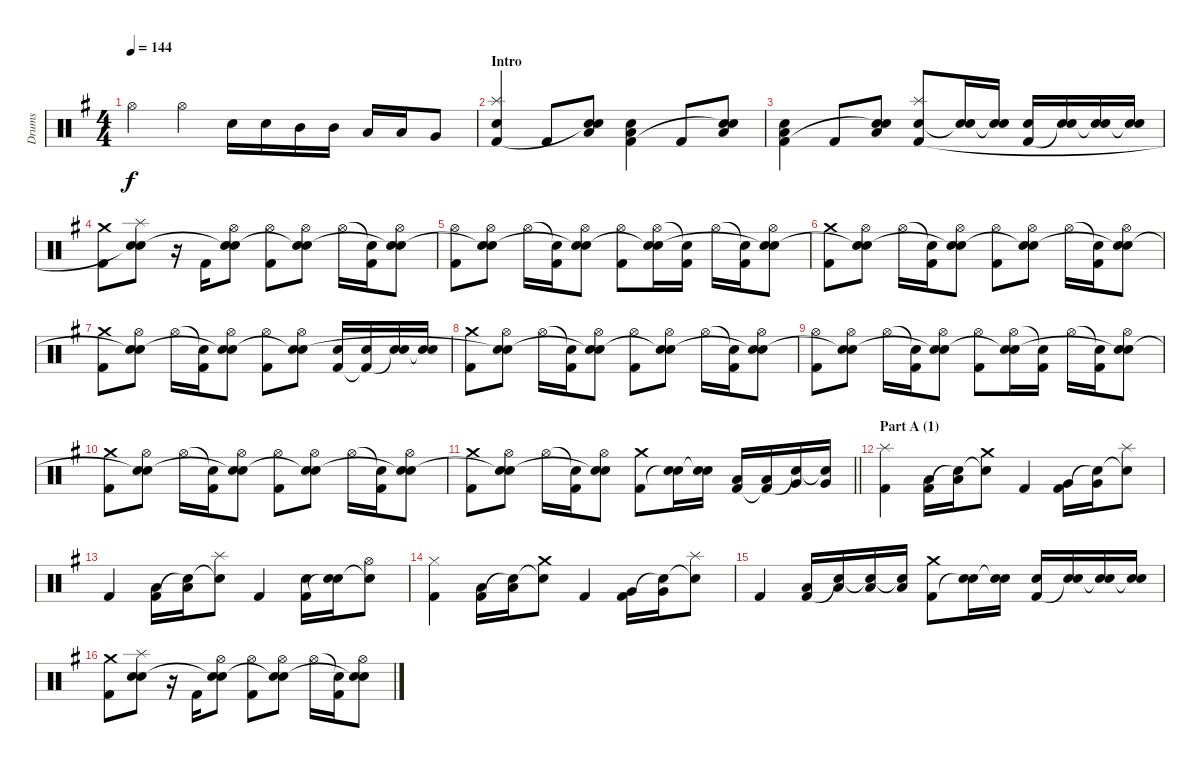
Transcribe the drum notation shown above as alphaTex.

\track ("Drums" "Drums") {instrument percussion}
\staff {score}
\articulation defaults
\ts (4 4)
\tempo 144
\clef neutral
\ks g "Hi-Hat (open)".4{dy f} "Hi-Hat (open)".4 "Electric Snare (hit)".16 "Electric Snare (hit)".16 "Mid Tom (hit)".16 "Mid Tom (hit)".16 "Low Tom (hit)".16 "Low Tom (hit)".16 "Very Low Tom (hit)".8
|
\section ("" "Intro")
("Splash (hit)" "Electric Snare (hit)" "Kick (hit) 2").4 "Kick (hit) 2".8 ("Electric Snare (hit)" "Low Floor Tom (hit)" "Snare (hit)"{t}).8 ("Electric Snare (hit)" "Low Floor Tom (hit)" "Kick (hit) 2").4 "Kick (hit) 2".8 ("Electric Snare (hit)" "Low Floor Tom (hit)" "Snare (hit)"{t}).8 |
("Electric Snare (hit)" "Low Floor Tom (hit)" "Kick (hit) 2").4 "Kick (hit) 2".8 ("Electric Snare (hit)" "Low Floor Tom (hit)" "Snare (hit)"{t}).8 ("Splash (hit)" "Electric Snare (hit)" "Kick (hit) 2").8 ("Electric Snare (hit)" "Snare (hit)"{t}).16 ("Electric Snare (hit)" "Snare (hit)"{t}).16 ("Electric Snare (hit)" "Kick (hit) 2").16 ("Electric Snare (hit)" "Snare (hit)"{t}).16 ("Electric Snare (hit)" "Snare (hit)"{t}).16 ("Electric Snare (hit)" "Snare (hit)"{t}).16 |
("Crash medium (hit)" "Kick (hit) 2").8 ("Splash (hit)" "Electric Snare (hit)" "Snare (hit)"{t}).8 r.16 "Kick (hit) 2".16 ("Hi-Hat (open)" "Electric Snare (hit)" "Snare (hit)"{t}).8 ("Hi-Hat (open)" "Kick (hit) 2").8 ("Hi-Hat (open)" "Electric Snare (hit)" "Snare (hit)"{t}).8 "Hi-Hat (open)".16 ("Snare (hit)"{t} "Kick (hit) 2").16 ("Hi-Hat (open)" "Electric Snare (hit)" "Snare (hit)"{t}).8 |
("Hi-Hat (open)" "Kick (hit) 2").8 ("Hi-Hat (open)" "Electric Snare (hit)" "Snare (hit)"{t}).8 "Hi-Hat (open)".16 ("Snare (hit)"{t} "Kick (hit) 2").16 ("Hi-Hat (open)" "Electric Snare (hit)" "Snare (hit)"{t}).8 ("Hi-Hat (open)" "Kick (hit) 2").8 ("Hi-Hat (open)" "Electric Snare (hit)" "Snare (hit)"{t}).16 ("Snare (hit)"{t} "Kick (hit) 2").16 "Hi-Hat (open)".16 ("Snare (hit)"{t} "Kick (hit) 2").16 ("Hi-Hat (open)" "Electric Snare (hit)" "Snare (hit)"{t}).8 |
("Crash medium (hit)" "Kick (hit) 2").8 ("Hi-Hat (open)" "Electric Snare (hit)" "Snare (hit)"{t}).8 "Hi-Hat (open)".16 ("Snare (hit)"{t} "Kick (hit) 2").16 ("Hi-Hat (open)" "Electric Snare (hit)" "Snare (hit)"{t}).8 ("Hi-Hat (open)" "Kick (hit) 2").8 ("Hi-Hat (open)" "Electric Snare (hit)" "Snare (hit)"{t}).8 "Hi-Hat (open)".16 ("Snare (hit)"{t} "Kick (hit) 2").16 ("Hi-Hat (open)" "Electric Snare (hit)" "Snare (hit)"{t}).8 |
("Crash medium (hit)" "Kick (hit) 2").8 ("Hi-Hat (open)" "Electric Snare (hit)" "Snare (hit)"{t}).8 "Hi-Hat (open)".16 ("Snare (hit)"{t} "Kick (hit) 2").16 ("Hi-Hat (open)" "Electric Snare (hit)" "Snare (hit)"{t}).8 ("Hi-Hat (open)" "Kick (hit) 2").8 ("Hi-Hat (open)" "Electric Snare (hit)" "Snare (hit)"{t}).8 ("Electric Snare (hit)" "Kick (hit) 2").16 ("Electric Snare (hit)" "Kick (hit) 2"{t}).16 ("Electric Snare (hit)" "Snare (hit)"{t}).16 ("Electric Snare (hit)" "Snare (hit)"{t}).16 |
("Crash medium (hit)" "Kick (hit) 2").8 ("Hi-Hat (open)" "Electric Snare (hit)" "Snare (hit)"{t}).8 "Hi-Hat (open)".16 ("Snare (hit)"{t} "Kick (hit) 2").16 ("Hi-Hat (open)" "Electric Snare (hit)" "Snare (hit)"{t}).8 ("Hi-Hat (open)" "Kick (hit) 2").8 ("Hi-Hat (open)" "Electric Snare (hit)" "Snare (hit)"{t}).8 "Hi-Hat (open)".16 ("Snare (hit)"{t} "Kick (hit) 2").16 ("Hi-Hat (open)" "Electric Snare (hit)" "Snare (hit)"{t}).8 |
("Hi-Hat (open)" "Kick (hit) 2").8 ("Hi-Hat (open)" "Electric Snare (hit)" "Snare (hit)"{t}).8 "Hi-Hat (open)".16 ("Snare (hit)"{t} "Kick (hit) 2").16 ("Hi-Hat (open)" "Electric Snare (hit)" "Snare (hit)"{t}).8 ("Hi-Hat (open)" "Kick (hit) 2").8 ("Hi-Hat (open)" "Electric Snare (hit)" "Snare (hit)"{t}).16 ("Snare (hit)"{t} "Kick (hit) 2").16 "Hi-Hat (open)".16 ("Snare (hit)"{t} "Kick (hit) 2").16 ("Hi-Hat (open)" "Electric Snare (hit)" "Snare (hit)"{t}).8 |
("Crash medium (hit)" "Kick (hit) 2").8 ("Hi-Hat (open)" "Electric Snare (hit)" "Snare (hit)"{t}).8 "Hi-Hat (open)".16 ("Snare (hit)"{t} "Kick (hit) 2").16 ("Hi-Hat (open)" "Electric Snare (hit)" "Snare (hit)"{t}).8 ("Hi-Hat (open)" "Kick (hit) 2").8 ("Hi-Hat (open)" "Electric Snare (hit)" "Snare (hit)"{t}).8 "Hi-Hat (open)".16 ("Snare (hit)"{t} "Kick (hit) 2").16 ("Hi-Hat (open)" "Electric Snare (hit)" "Snare (hit)"{t}).8 |
\barLineRight lightlight
("Crash medium (hit)" "Kick (hit) 2").8 ("Hi-Hat (open)" "Electric Snare (hit)" "Snare (hit)"{t}).8 "Hi-Hat (open)".16 ("Snare (hit)"{t} "Kick (hit) 2").16 ("Hi-Hat (open)" "Electric Snare (hit)" "Snare (hit)"{t}).8 ("Crash medium (hit)" "Kick (hit) 2").8 ("Electric Snare (hit)" "Snare (hit)"{t}).16 ("Electric Snare (hit)" "Snare (hit)"{t}).16 ("Low Tom (hit)" "Kick (hit) 2").16 ("Low Tom (hit)" "Kick (hit) 2"{t}).16 ("Very Low Tom (hit)" "Snare (hit)"{t}).16 ("Very Low Tom (hit)" "Snare (hit)"{t}).16 |
\section ("" "Part A (1)")
("Splash (hit)" "Kick (hit) 2").4 ("Low Tom (hit)" "Kick (hit) 2").16 ("Low Tom (hit)" "Snare (hit)"{t}).16 ("Crash medium (hit)" "Snare (hit)"{t}).8 "Kick (hit) 2".4 ("Very Low Tom (hit)" "Kick (hit) 2").16 ("Very Low Tom (hit)" "Snare (hit)"{t}).16 ("Splash (hit)" "Snare (hit)"{t}).8 |
"Kick (hit) 2".4 ("Low Floor Tom (hit)" "Kick (hit) 2").16 ("Low Floor Tom (hit)" "Snare (hit)"{t}).16 ("Splash (hit)" "Snare (hit)"{t}).8 "Kick (hit) 2".4 ("Electric Snare (hit)" "Kick (hit) 2").16 ("Electric Snare (hit)" "Snare (hit)"{t}).16 ("Hi-Hat (open)" "Snare (hit)"{t}).8 |
("Hi-Hat (closed)" "Kick (hit) 2").4 ("Low Tom (hit)" "Kick (hit) 2").16 ("Low Tom (hit)" "Snare (hit)"{t}).16 ("Crash medium (hit)" "Snare (hit)"{t}).8 "Kick (hit) 2".4 ("Very Low Tom (hit)" "Kick (hit) 2").16 ("Very Low Tom (hit)" "Snare (hit)"{t}).16 ("Splash (hit)" "Snare (hit)"{t}).8 |
"Kick (hit) 2".4 ("Low Floor Tom (hit)" "Kick (hit) 2").16 ("Low Floor Tom (hit)" "Snare (hit)"{t}).16 ("Low Floor Tom (hit)" "Snare (hit)"{t}).16 ("Low Floor Tom (hit)" "Snare (hit)"{t}).16 ("Crash medium (hit)" "Kick (hit) 2").8 ("Electric Snare (hit)" "Snare (hit)"{t}).16 ("Electric Snare (hit)" "Snare (hit)"{t}).16 ("Electric Snare (hit)" "Kick (hit) 2").16 ("Electric Snare (hit)" "Snare (hit)"{t}).16 ("Electric Snare (hit)" "Snare (hit)"{t}).16 ("Electric Snare (hit)" "Snare (hit)"{t}).16 |
("Crash medium (hit)" "Kick (hit) 2").8 ("Splash (hit)" "Electric Snare (hit)" "Snare (hit)").8 r.16 "Kick (hit) 2".16 ("Hi-Hat (open)" "Electric Snare (hit)" "Snare (hit)"{t}).8 ("Hi-Hat (open)" "Kick (hit) 2").8 ("Hi-Hat (open)" "Electric Snare (hit)" "Snare (hit)"{t}).8 "Hi-Hat (open)".16 ("Snare (hit)"{t} "Kick (hit) 2").16 ("Hi-Hat (open)" "Electric Snare (hit)" "Snare (hit)"{t}).8
